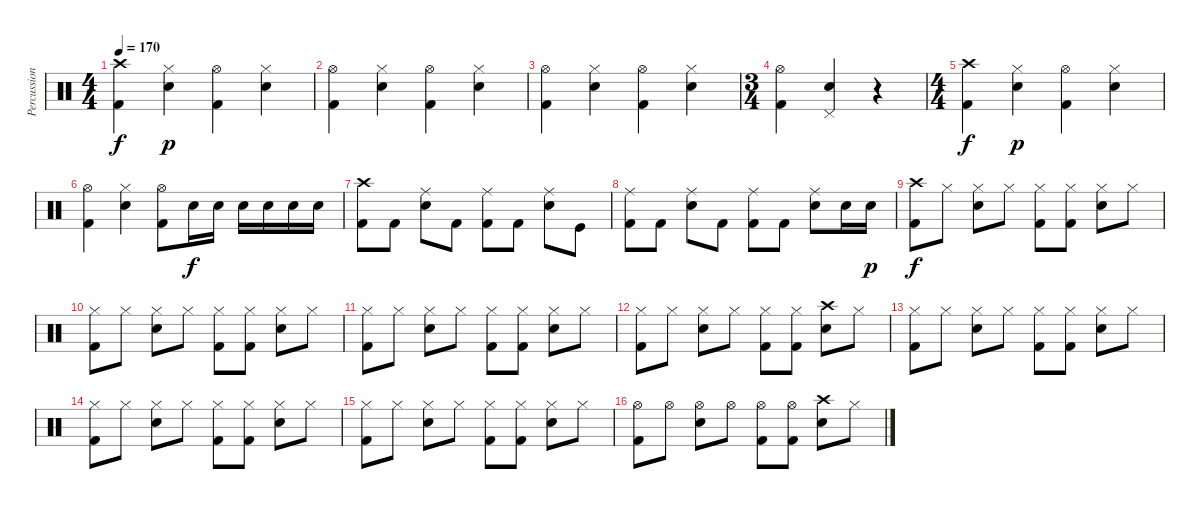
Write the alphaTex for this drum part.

\track ("Percussion" "Percussion") {instrument percussion}
\staff {score}
\articulation defaults
\ts (4 4)
\tempo 170
\clef neutral
\ks c
("Crash high (hit)" "Kick (hit) 2").4{dy f} ("Hi-Hat (closed)" "Electric Snare (hit)").4{dy p} ("Hi-Hat (open)" "Kick (hit) 2").4 ("Hi-Hat (closed)" "Electric Snare (hit)").4 |
("Hi-Hat (open)" "Kick (hit) 2").4 ("Hi-Hat (closed)" "Electric Snare (hit)").4 ("Hi-Hat (open)" "Kick (hit) 2").4 ("Hi-Hat (closed)" "Electric Snare (hit)").4 |
("Hi-Hat (open)" "Kick (hit) 2").4 ("Hi-Hat (closed)" "Electric Snare (hit)").4 ("Hi-Hat (open)" "Kick (hit) 2").4 ("Hi-Hat (closed)" "Electric Snare (hit)").4 |
\ts (3 4)
("Hi-Hat (open)" "Kick (hit) 2").4 ("Pedal Hi-Hat (hit)" "Electric Snare (hit)").4 r.4 |
\ts (4 4)
("Crash high (hit)" "Kick (hit) 2").4{dy f} ("Hi-Hat (closed)" "Electric Snare (hit)").4{dy p} ("Hi-Hat (open)" "Kick (hit) 2").4 ("Hi-Hat (closed)" "Electric Snare (hit)").4 |
("Hi-Hat (open)" "Kick (hit) 2").4 ("Hi-Hat (closed)" "Electric Snare (hit)").4 ("Hi-Hat (open)" "Kick (hit) 2").8 "Electric Snare (hit)".16{dy f} "Electric Snare (hit)".16 "Electric Snare (hit)".16 "Electric Snare (hit)".16 "Electric Snare (hit)".16 "Electric Snare (hit)".16 |
("Crash high (hit)" "Kick (hit) 2").8 "Kick (hit) 2".8 ("Ride (middle)" "Electric Snare (hit)").8 "Kick (hit) 2".8 ("Ride (middle)" "Kick (hit) 2").8 "Kick (hit) 2".8 ("Ride (middle)" "Electric Snare (hit)").8 "Kick (hit)".8 |
("Ride (middle)" "Kick (hit) 2").8 "Kick (hit) 2".8 ("Ride (middle)" "Electric Snare (hit)").8 "Kick (hit) 2".8 ("Ride (middle)" "Kick (hit) 2").8 "Kick (hit) 2".8 ("Ride (middle)" "Electric Snare (hit)").8 "Electric Snare (hit)".16 "Electric Snare (hit)".16{dy p} |
("Crash high (hit)" "Kick (hit) 2").8{dy f} "Hi-Hat (closed)".8 ("Hi-Hat (closed)" "Electric Snare (hit)").8 "Hi-Hat (closed)".8 ("Hi-Hat (closed)" "Kick (hit) 2").8 ("Hi-Hat (closed)" "Kick (hit) 2").8 ("Hi-Hat (closed)" "Electric Snare (hit)").8 "Hi-Hat (closed)".8 |
("Hi-Hat (closed)" "Kick (hit) 2").8 "Hi-Hat (closed)".8 ("Hi-Hat (closed)" "Electric Snare (hit)").8 "Hi-Hat (closed)".8 ("Hi-Hat (closed)" "Kick (hit) 2").8 ("Hi-Hat (closed)" "Kick (hit) 2").8 ("Hi-Hat (closed)" "Electric Snare (hit)").8 "Hi-Hat (closed)".8 |
("Hi-Hat (closed)" "Kick (hit) 2").8 "Hi-Hat (closed)".8 ("Hi-Hat (closed)" "Electric Snare (hit)").8 "Hi-Hat (closed)".8 ("Hi-Hat (closed)" "Kick (hit) 2").8 ("Hi-Hat (closed)" "Kick (hit) 2").8 ("Hi-Hat (closed)" "Electric Snare (hit)").8 "Hi-Hat (closed)".8 |
("Hi-Hat (closed)" "Kick (hit) 2").8 "Hi-Hat (closed)".8 ("Hi-Hat (closed)" "Electric Snare (hit)").8 "Hi-Hat (closed)".8 ("Hi-Hat (closed)" "Kick (hit) 2").8 ("Hi-Hat (closed)" "Kick (hit) 2").8 ("Crash high (hit)" "Electric Snare (hit)").8 "Hi-Hat (closed)".8 |
("Hi-Hat (closed)" "Kick (hit) 2").8 "Hi-Hat (closed)".8 ("Hi-Hat (closed)" "Electric Snare (hit)").8 "Hi-Hat (closed)".8 ("Hi-Hat (closed)" "Kick (hit) 2").8 ("Hi-Hat (closed)" "Kick (hit) 2").8 ("Hi-Hat (closed)" "Electric Snare (hit)").8 "Hi-Hat (closed)".8 |
("Hi-Hat (closed)" "Kick (hit) 2").8 "Hi-Hat (closed)".8 ("Hi-Hat (closed)" "Electric Snare (hit)").8 "Hi-Hat (closed)".8 ("Hi-Hat (closed)" "Kick (hit) 2").8 ("Hi-Hat (closed)" "Kick (hit) 2").8 ("Hi-Hat (closed)" "Electric Snare (hit)").8 "Hi-Hat (closed)".8 |
("Hi-Hat (closed)" "Kick (hit) 2").8 "Hi-Hat (closed)".8 ("Hi-Hat (closed)" "Electric Snare (hit)").8 "Hi-Hat (closed)".8 ("Hi-Hat (closed)" "Kick (hit) 2").8 ("Hi-Hat (closed)" "Kick (hit) 2").8 ("Hi-Hat (closed)" "Electric Snare (hit)").8 "Hi-Hat (closed)".8 |
("Hi-Hat (open)" "Kick (hit) 2").8 "Hi-Hat (open)".8 ("Hi-Hat (open)" "Electric Snare (hit)").8 "Hi-Hat (open)".8 ("Hi-Hat (open)" "Kick (hit) 2").8 ("Hi-Hat (open)" "Kick (hit) 2").8 ("Crash high (hit)" "Electric Snare (hit)").8 "Hi-Hat (closed)".8
